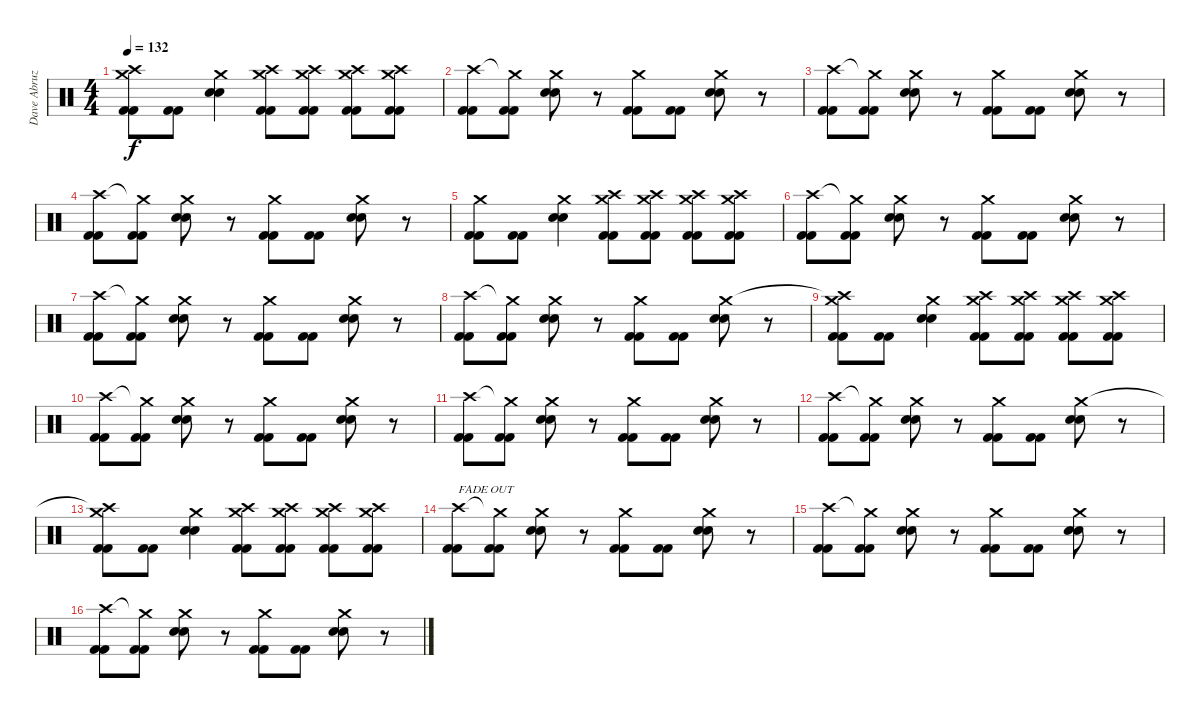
\track ("Dave Abruzzesse" "Dave Abruz") {instrument percussion}
\staff {score}
\articulation defaults
\ts (4 4)
\tempo 132
\clef neutral
\ks c
("Crash high (hit)"{t} "Crash medium (hit)" "Kick (hit) 2" "Kick (hit) 2").8{dy f} ("Kick (hit) 2" "Kick (hit) 2").8 ("Crash medium (hit)" "Snare (hit) 2" "Snare (hit) 2").4 ("Crash high (hit)" "Crash medium (hit)" "Kick (hit) 2" "Kick (hit) 2").8 ("Crash high (hit)" "Crash medium (hit)" "Kick (hit) 2" "Kick (hit) 2").8 ("Crash high (hit)" "Crash medium (hit)" "Kick (hit) 2" "Kick (hit) 2").8 ("Crash high (hit)" "Crash medium (hit)" "Kick (hit) 2" "Kick (hit) 2").8 |
("Crash high (hit)" "Kick (hit) 2" "Kick (hit) 2").8 ("Crash medium (hit)"{t} "Kick (hit) 2" "Kick (hit) 2").8 ("Crash medium (hit)" "Snare (hit) 2" "Snare (hit) 2").8 r.8 ("Crash medium (hit)" "Kick (hit) 2" "Kick (hit) 2").8 ("Kick (hit) 2" "Kick (hit) 2").8 ("Crash medium (hit)" "Snare (hit) 2" "Snare (hit) 2").8 r.8 |
("Crash high (hit)" "Kick (hit) 2" "Kick (hit) 2").8 ("Crash medium (hit)"{t} "Kick (hit) 2" "Kick (hit) 2").8 ("Crash medium (hit)" "Snare (hit) 2" "Snare (hit) 2").8 r.8 ("Crash medium (hit)" "Kick (hit) 2" "Kick (hit) 2").8 ("Kick (hit) 2" "Kick (hit) 2").8 ("Crash medium (hit)" "Snare (hit) 2" "Snare (hit) 2").8 r.8 |
("Crash high (hit)" "Kick (hit) 2" "Kick (hit) 2").8 ("Crash medium (hit)"{t} "Kick (hit) 2" "Kick (hit) 2").8 ("Crash medium (hit)" "Snare (hit) 2" "Snare (hit) 2").8 r.8 ("Crash medium (hit)" "Kick (hit) 2" "Kick (hit) 2").8 ("Kick (hit) 2" "Kick (hit) 2").8 ("Crash medium (hit)" "Snare (hit) 2" "Snare (hit) 2").8 r.8 |
("Crash medium (hit)" "Kick (hit) 2" "Kick (hit) 2").8 ("Kick (hit) 2" "Kick (hit) 2").8 ("Crash medium (hit)" "Snare (hit) 2" "Snare (hit) 2").4 ("Crash high (hit)" "Crash medium (hit)" "Kick (hit) 2" "Kick (hit) 2").8 ("Crash high (hit)" "Crash medium (hit)" "Kick (hit) 2" "Kick (hit) 2").8 ("Crash high (hit)" "Crash medium (hit)" "Kick (hit) 2" "Kick (hit) 2").8 ("Crash high (hit)" "Crash medium (hit)" "Kick (hit) 2" "Kick (hit) 2").8 |
("Crash high (hit)" "Kick (hit) 2" "Kick (hit) 2").8 ("Crash medium (hit)"{t} "Kick (hit) 2" "Kick (hit) 2").8 ("Crash medium (hit)" "Snare (hit) 2" "Snare (hit) 2").8 r.8 ("Crash medium (hit)" "Kick (hit) 2" "Kick (hit) 2").8 ("Kick (hit) 2" "Kick (hit) 2").8 ("Crash medium (hit)" "Snare (hit) 2" "Snare (hit) 2").8 r.8 |
("Crash high (hit)" "Kick (hit) 2" "Kick (hit) 2").8 ("Crash medium (hit)"{t} "Kick (hit) 2" "Kick (hit) 2").8 ("Crash medium (hit)" "Snare (hit) 2" "Snare (hit) 2").8 r.8 ("Crash medium (hit)" "Kick (hit) 2" "Kick (hit) 2").8 ("Kick (hit) 2" "Kick (hit) 2").8 ("Crash medium (hit)" "Snare (hit) 2" "Snare (hit) 2").8 r.8 |
("Crash high (hit)" "Kick (hit) 2" "Kick (hit) 2").8 ("Crash medium (hit)"{t} "Kick (hit) 2" "Kick (hit) 2").8 ("Crash medium (hit)" "Snare (hit) 2" "Snare (hit) 2").8 r.8 ("Crash medium (hit)" "Kick (hit) 2" "Kick (hit) 2").8 ("Kick (hit) 2" "Kick (hit) 2").8 ("Crash medium (hit)" "Snare (hit) 2" "Snare (hit) 2").8 r.8 |
("Crash high (hit)"{t} "Crash medium (hit)" "Kick (hit) 2" "Kick (hit) 2").8 ("Kick (hit) 2" "Kick (hit) 2").8 ("Crash medium (hit)" "Snare (hit) 2" "Snare (hit) 2").4 ("Crash high (hit)" "Crash medium (hit)" "Kick (hit) 2" "Kick (hit) 2").8 ("Crash high (hit)" "Crash medium (hit)" "Kick (hit) 2" "Kick (hit) 2").8 ("Crash high (hit)" "Crash medium (hit)" "Kick (hit) 2" "Kick (hit) 2").8 ("Crash high (hit)" "Crash medium (hit)" "Kick (hit) 2" "Kick (hit) 2").8 |
("Crash high (hit)" "Kick (hit) 2" "Kick (hit) 2").8 ("Crash medium (hit)"{t} "Kick (hit) 2" "Kick (hit) 2").8 ("Crash medium (hit)" "Snare (hit) 2" "Snare (hit) 2").8 r.8 ("Crash medium (hit)" "Kick (hit) 2" "Kick (hit) 2").8 ("Kick (hit) 2" "Kick (hit) 2").8 ("Crash medium (hit)" "Snare (hit) 2" "Snare (hit) 2").8 r.8 |
("Crash high (hit)" "Kick (hit) 2" "Kick (hit) 2").8 ("Crash medium (hit)"{t} "Kick (hit) 2" "Kick (hit) 2").8 ("Crash medium (hit)" "Snare (hit) 2" "Snare (hit) 2").8 r.8 ("Crash medium (hit)" "Kick (hit) 2" "Kick (hit) 2").8 ("Kick (hit) 2" "Kick (hit) 2").8 ("Crash medium (hit)" "Snare (hit) 2" "Snare (hit) 2").8 r.8 |
("Crash high (hit)" "Kick (hit) 2" "Kick (hit) 2").8 ("Crash medium (hit)"{t} "Kick (hit) 2" "Kick (hit) 2").8 ("Crash medium (hit)" "Snare (hit) 2" "Snare (hit) 2").8 r.8 ("Crash medium (hit)" "Kick (hit) 2" "Kick (hit) 2").8 ("Kick (hit) 2" "Kick (hit) 2").8 ("Crash medium (hit)" "Snare (hit) 2" "Snare (hit) 2").8 r.8 |
("Crash high (hit)"{t} "Crash medium (hit)" "Kick (hit) 2" "Kick (hit) 2").8 ("Kick (hit) 2" "Kick (hit) 2").8 ("Crash medium (hit)" "Snare (hit) 2" "Snare (hit) 2").4 ("Crash high (hit)" "Crash medium (hit)" "Kick (hit) 2" "Kick (hit) 2").8 ("Crash high (hit)" "Crash medium (hit)" "Kick (hit) 2" "Kick (hit) 2").8 ("Crash high (hit)" "Crash medium (hit)" "Kick (hit) 2" "Kick (hit) 2").8 ("Crash high (hit)" "Crash medium (hit)" "Kick (hit) 2" "Kick (hit) 2").8 |
("Crash high (hit)" "Kick (hit) 2" "Kick (hit) 2").8{txt "FADE OUT"} ("Crash medium (hit)"{t} "Kick (hit) 2" "Kick (hit) 2").8 ("Crash medium (hit)" "Snare (hit) 2" "Snare (hit) 2").8 r.8 ("Crash medium (hit)" "Kick (hit) 2" "Kick (hit) 2").8 ("Kick (hit) 2" "Kick (hit) 2").8 ("Crash medium (hit)" "Snare (hit) 2" "Snare (hit) 2").8 r.8 |
("Crash high (hit)" "Kick (hit) 2" "Kick (hit) 2").8 ("Crash medium (hit)"{t} "Kick (hit) 2" "Kick (hit) 2").8 ("Crash medium (hit)" "Snare (hit) 2" "Snare (hit) 2").8 r.8 ("Crash medium (hit)" "Kick (hit) 2" "Kick (hit) 2").8 ("Kick (hit) 2" "Kick (hit) 2").8 ("Crash medium (hit)" "Snare (hit) 2" "Snare (hit) 2").8 r.8 |
("Crash high (hit)" "Kick (hit) 2" "Kick (hit) 2").8 ("Crash medium (hit)"{t} "Kick (hit) 2" "Kick (hit) 2").8 ("Crash medium (hit)" "Snare (hit) 2" "Snare (hit) 2").8 r.8 ("Crash medium (hit)" "Kick (hit) 2" "Kick (hit) 2").8 ("Kick (hit) 2" "Kick (hit) 2").8 ("Crash medium (hit)" "Snare (hit) 2" "Snare (hit) 2").8 r.8
